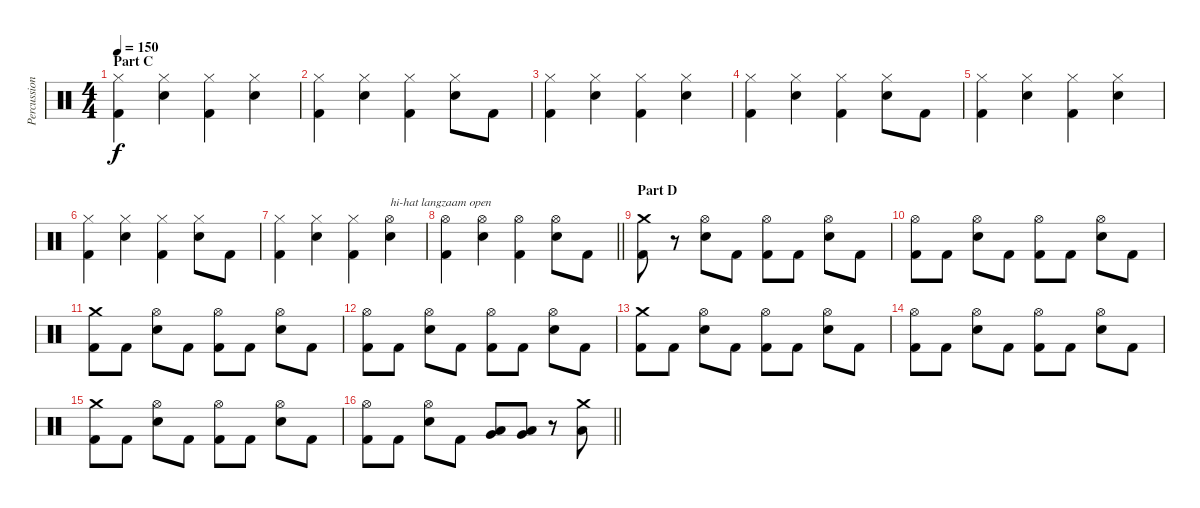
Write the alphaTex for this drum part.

\track ("Percussion" "Percussion") {instrument percussion}
\staff {score}
\articulation defaults
\ts (4 4)
\section ("" "Part C")
\tempo 150
\clef neutral
\ks c
("Hi-Hat (closed)" "Kick (hit) 2").4{dy f} ("Hi-Hat (closed)" "Electric Snare (hit)").4 ("Hi-Hat (closed)" "Kick (hit) 2").4 ("Hi-Hat (closed)" "Electric Snare (hit)").4 |
("Hi-Hat (closed)" "Kick (hit) 2").4 ("Hi-Hat (closed)" "Electric Snare (hit)").4 ("Hi-Hat (closed)" "Kick (hit) 2").4 ("Hi-Hat (closed)" "Electric Snare (hit)").8 "Kick (hit) 2".8 |
("Hi-Hat (closed)" "Kick (hit) 2").4 ("Hi-Hat (closed)" "Electric Snare (hit)").4 ("Hi-Hat (closed)" "Kick (hit) 2").4 ("Hi-Hat (closed)" "Electric Snare (hit)").4 |
("Hi-Hat (closed)" "Kick (hit) 2").4 ("Hi-Hat (closed)" "Electric Snare (hit)").4 ("Hi-Hat (closed)" "Kick (hit) 2").4 ("Hi-Hat (closed)" "Electric Snare (hit)").8 "Kick (hit) 2".8 |
("Hi-Hat (closed)" "Kick (hit) 2").4 ("Hi-Hat (closed)" "Electric Snare (hit)").4 ("Hi-Hat (closed)" "Kick (hit) 2").4 ("Hi-Hat (closed)" "Electric Snare (hit)").4 |
("Hi-Hat (closed)" "Kick (hit) 2").4 ("Hi-Hat (closed)" "Electric Snare (hit)").4 ("Hi-Hat (closed)" "Kick (hit) 2").4 ("Hi-Hat (closed)" "Electric Snare (hit)").8 "Kick (hit) 2".8 |
("Hi-Hat (closed)" "Kick (hit) 2").4 ("Hi-Hat (closed)" "Electric Snare (hit)").4 ("Hi-Hat (closed)" "Kick (hit) 2").4 ("Hi-Hat (open)" "Electric Snare (hit)").4{txt "hi-hat langzaam open"} |
\barLineRight lightlight
("Hi-Hat (open)" "Kick (hit) 2").4 ("Hi-Hat (open)" "Electric Snare (hit)").4 ("Hi-Hat (open)" "Kick (hit) 2").4 ("Hi-Hat (open)" "Electric Snare (hit)").8 "Kick (hit) 2".8 |
\section ("" "Part D")
("Crash medium (hit)" "Kick (hit) 2").8 r.8 ("Hi-Hat (open)" "Electric Snare (hit)").8 "Kick (hit) 2".8 ("Hi-Hat (open)" "Kick (hit) 2").8 "Kick (hit) 2".8 ("Hi-Hat (open)" "Electric Snare (hit)").8 "Kick (hit) 2".8 |
("Hi-Hat (open)" "Kick (hit) 2").8 "Kick (hit) 2".8 ("Hi-Hat (open)" "Electric Snare (hit)").8 "Kick (hit) 2".8 ("Hi-Hat (open)" "Kick (hit) 2").8 "Kick (hit) 2".8 ("Hi-Hat (open)" "Electric Snare (hit)").8 "Kick (hit) 2".8 |
("Crash medium (hit)" "Kick (hit) 2").8 "Kick (hit) 2".8 ("Hi-Hat (open)" "Electric Snare (hit)").8 "Kick (hit) 2".8 ("Hi-Hat (open)" "Kick (hit) 2").8 "Kick (hit) 2".8 ("Hi-Hat (open)" "Electric Snare (hit)").8 "Kick (hit) 2".8 |
("Hi-Hat (open)" "Kick (hit) 2").8 "Kick (hit) 2".8 ("Hi-Hat (open)" "Electric Snare (hit)").8 "Kick (hit) 2".8 ("Hi-Hat (open)" "Kick (hit) 2").8 "Kick (hit) 2".8 ("Hi-Hat (open)" "Electric Snare (hit)").8 "Kick (hit) 2".8 |
("Crash medium (hit)" "Kick (hit) 2").8 "Kick (hit) 2".8 ("Hi-Hat (open)" "Electric Snare (hit)").8 "Kick (hit) 2".8 ("Hi-Hat (open)" "Kick (hit) 2").8 "Kick (hit) 2".8 ("Hi-Hat (open)" "Electric Snare (hit)").8 "Kick (hit) 2".8 |
("Hi-Hat (open)" "Kick (hit) 2").8 "Kick (hit) 2".8 ("Hi-Hat (open)" "Electric Snare (hit)").8 "Kick (hit) 2".8 ("Hi-Hat (open)" "Kick (hit) 2").8 "Kick (hit) 2".8 ("Hi-Hat (open)" "Electric Snare (hit)").8 "Kick (hit) 2".8 |
("Crash medium (hit)" "Kick (hit) 2").8 "Kick (hit) 2".8 ("Hi-Hat (open)" "Electric Snare (hit)").8 "Kick (hit) 2".8 ("Hi-Hat (open)" "Kick (hit) 2").8 "Kick (hit) 2".8 ("Hi-Hat (open)" "Electric Snare (hit)").8 "Kick (hit) 2".8 |
\barLineRight lightlight
("Hi-Hat (open)" "Kick (hit) 2").8 "Kick (hit) 2".8 ("Hi-Hat (open)" "Electric Snare (hit)").8 "Kick (hit) 2".8 ("Low Tom (hit)" "Very Low Tom (hit)").8 ("Very Low Tom (hit)" "Low Floor Tom (hit)").8 r.8 ("Crash medium (hit)" "Low Floor Tom (hit)").8
